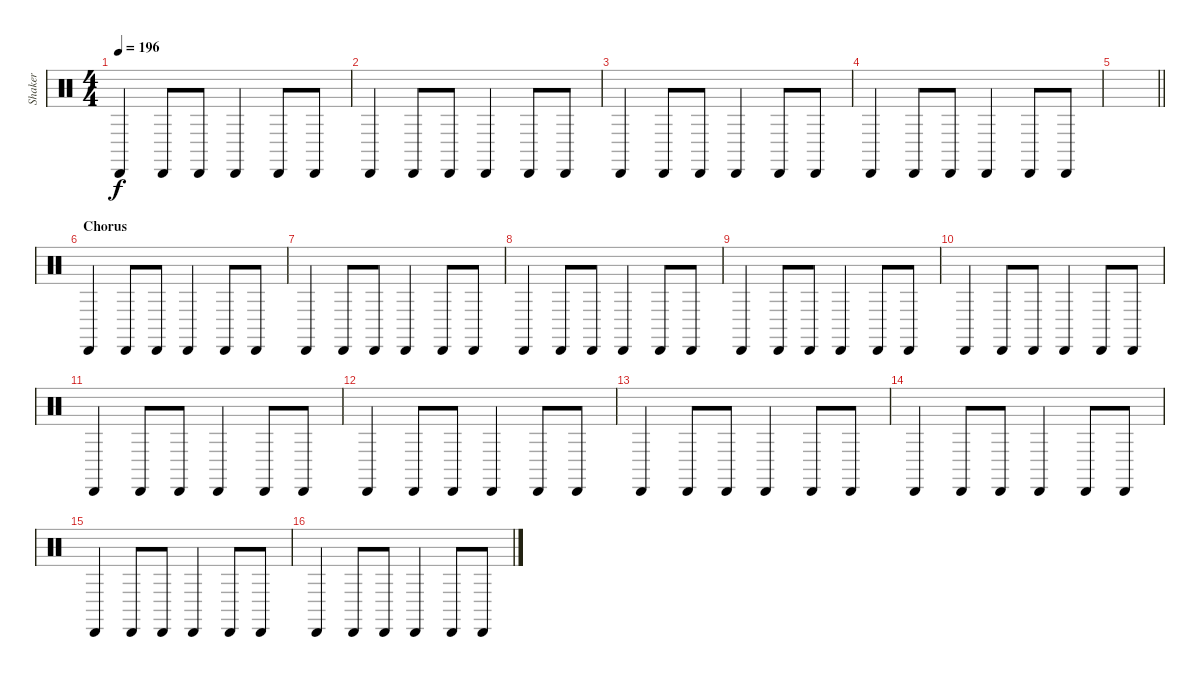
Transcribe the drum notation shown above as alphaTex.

\track ("Shaker" "Shaker") {instrument percussion bank 126}
\staff {score}
\articulation defaults
\ts (4 4)
\tempo 196
\clef neutral
\ks c "Cabasa (hit)".4{dy f} "Cabasa (hit)".8 "Cabasa (hit)".8 "Cabasa (hit)".4 "Cabasa (hit)".8 "Cabasa (hit)".8
|
"Cabasa (hit)".4 "Cabasa (hit)".8 "Cabasa (hit)".8 "Cabasa (hit)".4 "Cabasa (hit)".8 "Cabasa (hit)".8 |
"Cabasa (hit)".4 "Cabasa (hit)".8 "Cabasa (hit)".8 "Cabasa (hit)".4 "Cabasa (hit)".8 "Cabasa (hit)".8 |
"Cabasa (hit)".4 "Cabasa (hit)".8 "Cabasa (hit)".8 "Cabasa (hit)".4 "Cabasa (hit)".8 "Cabasa (hit)".8 |
\barLineRight lightlight
|
\section ("" "Chorus")
"Cabasa (hit)".4 "Cabasa (hit)".8 "Cabasa (hit)".8 "Cabasa (hit)".4 "Cabasa (hit)".8 "Cabasa (hit)".8 |
"Cabasa (hit)".4 "Cabasa (hit)".8 "Cabasa (hit)".8 "Cabasa (hit)".4 "Cabasa (hit)".8 "Cabasa (hit)".8 |
"Cabasa (hit)".4 "Cabasa (hit)".8 "Cabasa (hit)".8 "Cabasa (hit)".4 "Cabasa (hit)".8 "Cabasa (hit)".8 |
"Cabasa (hit)".4 "Cabasa (hit)".8 "Cabasa (hit)".8 "Cabasa (hit)".4 "Cabasa (hit)".8 "Cabasa (hit)".8 |
"Cabasa (hit)".4 "Cabasa (hit)".8 "Cabasa (hit)".8 "Cabasa (hit)".4 "Cabasa (hit)".8 "Cabasa (hit)".8 |
"Cabasa (hit)".4 "Cabasa (hit)".8 "Cabasa (hit)".8 "Cabasa (hit)".4 "Cabasa (hit)".8 "Cabasa (hit)".8 |
"Cabasa (hit)".4 "Cabasa (hit)".8 "Cabasa (hit)".8 "Cabasa (hit)".4 "Cabasa (hit)".8 "Cabasa (hit)".8 |
"Cabasa (hit)".4 "Cabasa (hit)".8 "Cabasa (hit)".8 "Cabasa (hit)".4 "Cabasa (hit)".8 "Cabasa (hit)".8 |
"Cabasa (hit)".4 "Cabasa (hit)".8 "Cabasa (hit)".8 "Cabasa (hit)".4 "Cabasa (hit)".8 "Cabasa (hit)".8 |
"Cabasa (hit)".4 "Cabasa (hit)".8 "Cabasa (hit)".8 "Cabasa (hit)".4 "Cabasa (hit)".8 "Cabasa (hit)".8 |
"Cabasa (hit)".4 "Cabasa (hit)".8 "Cabasa (hit)".8 "Cabasa (hit)".4 "Cabasa (hit)".8 "Cabasa (hit)".8
